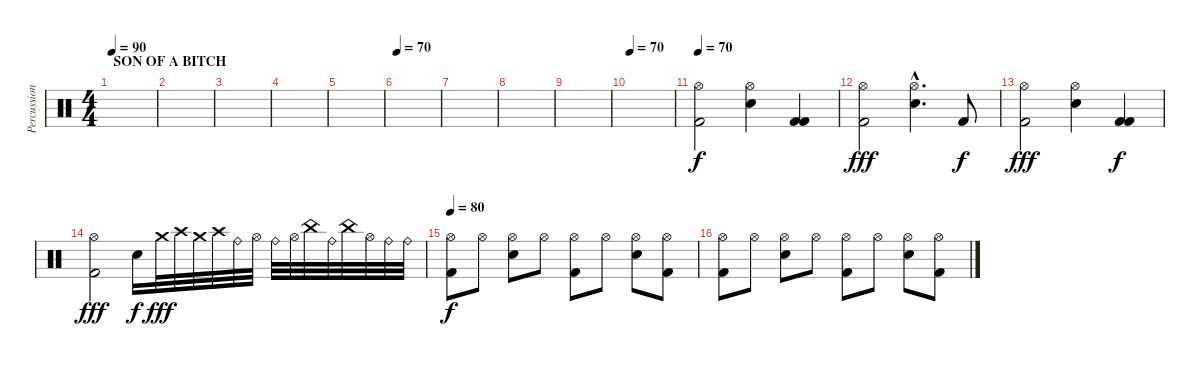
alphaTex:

\track ("Percussions" "Percussion") {instrument percussion}
\staff {score}
\articulation defaults
\ts (4 4)
\section ("" "SON OF A BITCH")
\tempo 90
\tempo 70
\tempo 90
\clef neutral
\ks c
|
|
|
|
|
\tempo 70
|
|
|
|
\tempo 70
|
\tempo 70
("Hi-Hat (open)" "Kick (hit) 2").2 ("Hi-Hat (open)" "Electric Snare (hit)").4 ("Kick (hit) 2" "Kick (hit) 2").4{dy f} |
("Hi-Hat (open)" "Kick (hit) 2").2{dy fff} ("Hi-Hat (open)"{hac} "Electric Snare (hit)"{hac}).4{d} "Kick (hit) 2".8{dy f} |
("Hi-Hat (open)" "Kick (hit) 2").2{dy fff} ("Hi-Hat (open)" "Electric Snare (hit)").4 ("Kick (hit) 2" "Kick (hit) 2").4{dy f} |
("Hi-Hat (open)" "Kick (hit) 2").2{dy fff} "Electric Snare (hit)".16{dy f} "Crash medium (hit)".32{dy fff} "Crash high (hit)".32 "Crash medium (hit)".32 "Crash high (hit)".32 "Ride (bell)".32 "Hi-Hat (open)".32 "Ride (bell)".32 "Hi-Hat (open)".32 "China (hit)".32 "Ride (bell)".32 "China (hit)".32 "Hi-Hat (open)".32 "Ride (bell)".32 "Ride (bell)".32 |
\tempo 80
("Hi-Hat (open)" "Kick (hit) 2").8{dy f} "Hi-Hat (open)".8 ("Hi-Hat (open)" "Electric Snare (hit)").8 "Hi-Hat (open)".8 ("Hi-Hat (open)" "Kick (hit) 2").8 "Hi-Hat (open)".8 ("Hi-Hat (open)" "Electric Snare (hit)").8 ("Hi-Hat (open)" "Kick (hit) 2").8 |
("Hi-Hat (open)" "Kick (hit) 2").8 "Hi-Hat (open)".8 ("Hi-Hat (open)" "Electric Snare (hit)").8 "Hi-Hat (open)".8 ("Hi-Hat (open)" "Kick (hit) 2").8 "Hi-Hat (open)".8 ("Hi-Hat (open)" "Electric Snare (hit)").8 ("Hi-Hat (open)" "Kick (hit) 2").8
